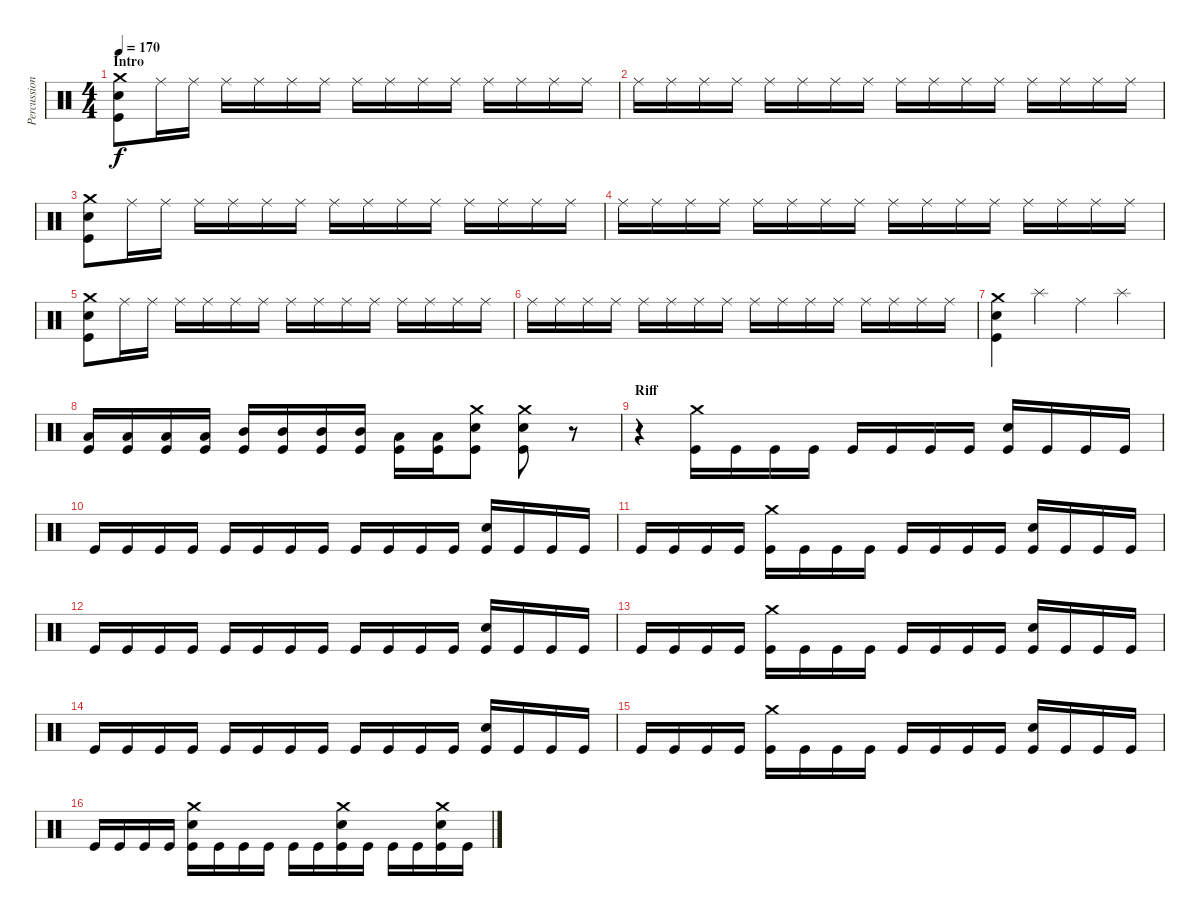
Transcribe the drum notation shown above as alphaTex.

\track ("Percussion" "Percussion") {instrument percussion}
\staff {score}
\articulation defaults
\ts (4 4)
\section ("" "Intro")
\tempo 170
\clef neutral
\ks c
("Crash medium (hit)" "Snare (hit) 2" "Kick (hit)").8{dy f} "Ride (middle)".16 "Ride (middle)".16 "Ride (middle)".16 "Ride (middle)".16 "Ride (middle)".16 "Ride (middle)".16 "Ride (middle)".16 "Ride (middle)".16 "Ride (middle)".16 "Ride (middle)".16 "Ride (middle)".16 "Ride (middle)".16 "Ride (middle)".16 "Ride (middle)".16 |
"Ride (middle)".16 "Ride (middle)".16 "Ride (middle)".16 "Ride (middle)".16 "Ride (middle)".16 "Ride (middle)".16 "Ride (middle)".16 "Ride (middle)".16 "Ride (middle)".16 "Ride (middle)".16 "Ride (middle)".16 "Ride (middle)".16 "Ride (middle)".16 "Ride (middle)".16 "Ride (middle)".16 "Ride (middle)".16 |
("Crash medium (hit)" "Snare (hit) 2" "Kick (hit)").8 "Ride (middle)".16 "Ride (middle)".16 "Ride (middle)".16 "Ride (middle)".16 "Ride (middle)".16 "Ride (middle)".16 "Ride (middle)".16 "Ride (middle)".16 "Ride (middle)".16 "Ride (middle)".16 "Ride (middle)".16 "Ride (middle)".16 "Ride (middle)".16 "Ride (middle)".16 |
"Ride (middle)".16 "Ride (middle)".16 "Ride (middle)".16 "Ride (middle)".16 "Ride (middle)".16 "Ride (middle)".16 "Ride (middle)".16 "Ride (middle)".16 "Ride (middle)".16 "Ride (middle)".16 "Ride (middle)".16 "Ride (middle)".16 "Ride (middle)".16 "Ride (middle)".16 "Ride (middle)".16 "Ride (middle)".16 |
("Crash medium (hit)" "Snare (hit) 2" "Kick (hit)").8 "Ride (middle)".16 "Ride (middle)".16 "Ride (middle)".16 "Ride (middle)".16 "Ride (middle)".16 "Ride (middle)".16 "Ride (middle)".16 "Ride (middle)".16 "Ride (middle)".16 "Ride (middle)".16 "Ride (middle)".16 "Ride (middle)".16 "Ride (middle)".16 "Ride (middle)".16 |
"Ride (middle)".16 "Ride (middle)".16 "Ride (middle)".16 "Ride (middle)".16 "Ride (middle)".16 "Ride (middle)".16 "Ride (middle)".16 "Ride (middle)".16 "Ride (middle)".16 "Ride (middle)".16 "Ride (middle)".16 "Ride (middle)".16 "Ride (middle)".16 "Ride (middle)".16 "Ride (middle)".16 "Ride (middle)".16 |
("Crash medium (hit)" "Snare (hit) 2" "Kick (hit)").4 "Splash (hit)".4 "Ride (middle)".4 "Splash (hit)".4 |
("Low Tom (hit)" "Kick (hit)").16 ("Low Tom (hit)" "Kick (hit)").16 ("Low Tom (hit)" "Kick (hit)").16 ("Low Tom (hit)" "Kick (hit)").16 ("Mid Tom (hit)" "Kick (hit)").16 ("Mid Tom (hit)" "Kick (hit)").16 ("Mid Tom (hit)" "Kick (hit)").16 ("Mid Tom (hit)" "Kick (hit)").16 ("Low Tom (hit)" "Kick (hit)").16 ("Low Tom (hit)" "Kick (hit)").16 ("Crash medium (hit)" "Snare (hit) 2" "Kick (hit)").8 ("Crash medium (hit)" "Snare (hit) 2" "Kick (hit)").8 r.8 |
\section ("" "Riff")
r.4 ("Crash medium (hit)" "Kick (hit)").16 "Kick (hit)".16 "Kick (hit)".16 "Kick (hit)".16 "Kick (hit)".16 "Kick (hit)".16 "Kick (hit)".16 "Kick (hit)".16 ("Snare (hit) 2" "Kick (hit)").16 "Kick (hit)".16 "Kick (hit)".16 "Kick (hit)".16 |
"Kick (hit)".16 "Kick (hit)".16 "Kick (hit)".16 "Kick (hit)".16 "Kick (hit)".16 "Kick (hit)".16 "Kick (hit)".16 "Kick (hit)".16 "Kick (hit)".16 "Kick (hit)".16 "Kick (hit)".16 "Kick (hit)".16 ("Snare (hit) 2" "Kick (hit)").16 "Kick (hit)".16 "Kick (hit)".16 "Kick (hit)".16 |
"Kick (hit)".16 "Kick (hit)".16 "Kick (hit)".16 "Kick (hit)".16 ("Crash medium (hit)" "Kick (hit)").16 "Kick (hit)".16 "Kick (hit)".16 "Kick (hit)".16 "Kick (hit)".16 "Kick (hit)".16 "Kick (hit)".16 "Kick (hit)".16 ("Snare (hit) 2" "Kick (hit)").16 "Kick (hit)".16 "Kick (hit)".16 "Kick (hit)".16 |
"Kick (hit)".16 "Kick (hit)".16 "Kick (hit)".16 "Kick (hit)".16 "Kick (hit)".16 "Kick (hit)".16 "Kick (hit)".16 "Kick (hit)".16 "Kick (hit)".16 "Kick (hit)".16 "Kick (hit)".16 "Kick (hit)".16 ("Snare (hit) 2" "Kick (hit)").16 "Kick (hit)".16 "Kick (hit)".16 "Kick (hit)".16 |
"Kick (hit)".16 "Kick (hit)".16 "Kick (hit)".16 "Kick (hit)".16 ("Crash medium (hit)" "Kick (hit)").16 "Kick (hit)".16 "Kick (hit)".16 "Kick (hit)".16 "Kick (hit)".16 "Kick (hit)".16 "Kick (hit)".16 "Kick (hit)".16 ("Snare (hit) 2" "Kick (hit)").16 "Kick (hit)".16 "Kick (hit)".16 "Kick (hit)".16 |
"Kick (hit)".16 "Kick (hit)".16 "Kick (hit)".16 "Kick (hit)".16 "Kick (hit)".16 "Kick (hit)".16 "Kick (hit)".16 "Kick (hit)".16 "Kick (hit)".16 "Kick (hit)".16 "Kick (hit)".16 "Kick (hit)".16 ("Snare (hit) 2" "Kick (hit)").16 "Kick (hit)".16 "Kick (hit)".16 "Kick (hit)".16 |
"Kick (hit)".16 "Kick (hit)".16 "Kick (hit)".16 "Kick (hit)".16 ("Crash medium (hit)" "Kick (hit)").16 "Kick (hit)".16 "Kick (hit)".16 "Kick (hit)".16 "Kick (hit)".16 "Kick (hit)".16 "Kick (hit)".16 "Kick (hit)".16 ("Snare (hit) 2" "Kick (hit)").16 "Kick (hit)".16 "Kick (hit)".16 "Kick (hit)".16 |
"Kick (hit)".16 "Kick (hit)".16 "Kick (hit)".16 "Kick (hit)".16 ("Crash medium (hit)" "Snare (hit) 2" "Kick (hit)").16 "Kick (hit)".16 "Kick (hit)".16 "Kick (hit)".16 "Kick (hit)".16 "Kick (hit)".16 ("Crash medium (hit)" "Snare (hit) 2" "Kick (hit)").16 "Kick (hit)".16 "Kick (hit)".16 "Kick (hit)".16 ("Crash medium (hit)" "Snare (hit) 2" "Kick (hit)").16 "Kick (hit)".16
